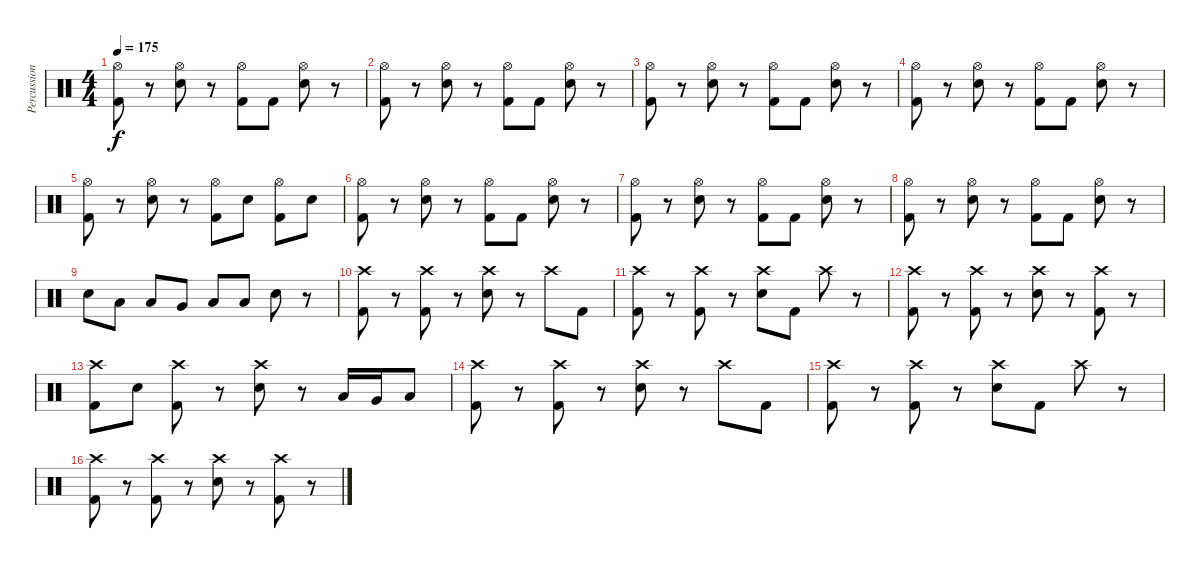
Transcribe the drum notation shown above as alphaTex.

\track ("Percussion" "Percussion") {instrument percussion}
\staff {score}
\articulation defaults
\ts (4 4)
\tempo 175
\clef neutral
\ks c
("Hi-Hat (open)" "Kick (hit) 2").8{dy f} r.8 ("Hi-Hat (open)" "Snare (hit) 2").8 r.8 ("Hi-Hat (open)" "Kick (hit) 2").8 "Kick (hit) 2".8 ("Hi-Hat (open)" "Snare (hit) 2").8 r.8 |
("Hi-Hat (open)" "Kick (hit) 2").8 r.8 ("Hi-Hat (open)" "Snare (hit) 2").8 r.8 ("Hi-Hat (open)" "Kick (hit) 2").8 "Kick (hit) 2".8 ("Hi-Hat (open)" "Snare (hit) 2").8 r.8 |
("Hi-Hat (open)" "Kick (hit) 2").8 r.8 ("Hi-Hat (open)" "Snare (hit) 2").8 r.8 ("Hi-Hat (open)" "Kick (hit) 2").8 "Kick (hit) 2".8 ("Hi-Hat (open)" "Snare (hit) 2").8 r.8 |
("Hi-Hat (open)" "Kick (hit) 2").8 r.8 ("Hi-Hat (open)" "Snare (hit) 2").8 r.8 ("Hi-Hat (open)" "Kick (hit) 2").8 "Kick (hit) 2".8 ("Hi-Hat (open)" "Snare (hit) 2").8 r.8 |
("Hi-Hat (open)" "Kick (hit) 2").8 r.8 ("Hi-Hat (open)" "Snare (hit) 2").8 r.8 ("Hi-Hat (open)" "Kick (hit) 2").8 "Snare (hit) 2".8 ("Hi-Hat (open)" "Kick (hit) 2").8 "Snare (hit) 2".8 |
("Hi-Hat (open)" "Kick (hit) 2").8 r.8 ("Hi-Hat (open)" "Snare (hit) 2").8 r.8 ("Hi-Hat (open)" "Kick (hit) 2").8 "Kick (hit) 2".8 ("Hi-Hat (open)" "Snare (hit) 2").8 r.8 |
("Hi-Hat (open)" "Kick (hit) 2").8 r.8 ("Hi-Hat (open)" "Snare (hit) 2").8 r.8 ("Hi-Hat (open)" "Kick (hit) 2").8 "Kick (hit) 2".8 ("Hi-Hat (open)" "Snare (hit) 2").8 r.8 |
("Hi-Hat (open)" "Kick (hit) 2").8 r.8 ("Hi-Hat (open)" "Snare (hit) 2").8 r.8 ("Hi-Hat (open)" "Kick (hit) 2").8 "Kick (hit) 2".8 ("Hi-Hat (open)" "Snare (hit) 2").8 r.8 |
"Snare (hit) 2".8 "Low Tom (hit)".8 "Low Tom (hit)".8 "Very Low Tom (hit)".8 "Low Floor Tom (hit)".8 "Low Floor Tom (hit)".8 "Snare (hit) 2".8 r.8 |
("Crash high (hit)" "Kick (hit) 2").8 r.8 ("Crash high (hit)" "Kick (hit) 2").8 r.8 ("Crash high (hit)" "Snare (hit) 2").8 r.8 "Crash high (hit)".8 "Kick (hit) 2".8 |
("Crash high (hit)" "Kick (hit) 2").8 r.8 ("Crash high (hit)" "Kick (hit) 2").8 r.8 ("Crash high (hit)" "Snare (hit) 2").8 "Kick (hit) 2".8 "Crash high (hit)".8 r.8 |
("Crash high (hit)" "Kick (hit) 2").8 r.8 ("Crash high (hit)" "Kick (hit) 2").8 r.8 ("Crash high (hit)" "Snare (hit) 2").8 r.8 ("Crash high (hit)" "Kick (hit) 2").8 r.8 |
("Crash high (hit)" "Kick (hit) 2").8 "Snare (hit) 2".8 ("Crash high (hit)" "Kick (hit) 2").8 r.8 ("Crash high (hit)" "Snare (hit) 2").8 r.8 "Low Tom (hit)".16 "Very Low Tom (hit)".16 "Low Floor Tom (hit)".8 |
("Crash high (hit)" "Kick (hit) 2").8 r.8 ("Crash high (hit)" "Kick (hit) 2").8 r.8 ("Crash high (hit)" "Snare (hit) 2").8 r.8 "Crash high (hit)".8 "Kick (hit) 2".8 |
("Crash high (hit)" "Kick (hit) 2").8 r.8 ("Crash high (hit)" "Kick (hit) 2").8 r.8 ("Crash high (hit)" "Snare (hit) 2").8 "Kick (hit) 2".8 "Crash high (hit)".8 r.8 |
("Crash high (hit)" "Kick (hit) 2").8 r.8 ("Crash high (hit)" "Kick (hit) 2").8 r.8 ("Crash high (hit)" "Snare (hit) 2").8 r.8 ("Crash high (hit)" "Kick (hit) 2").8 r.8
